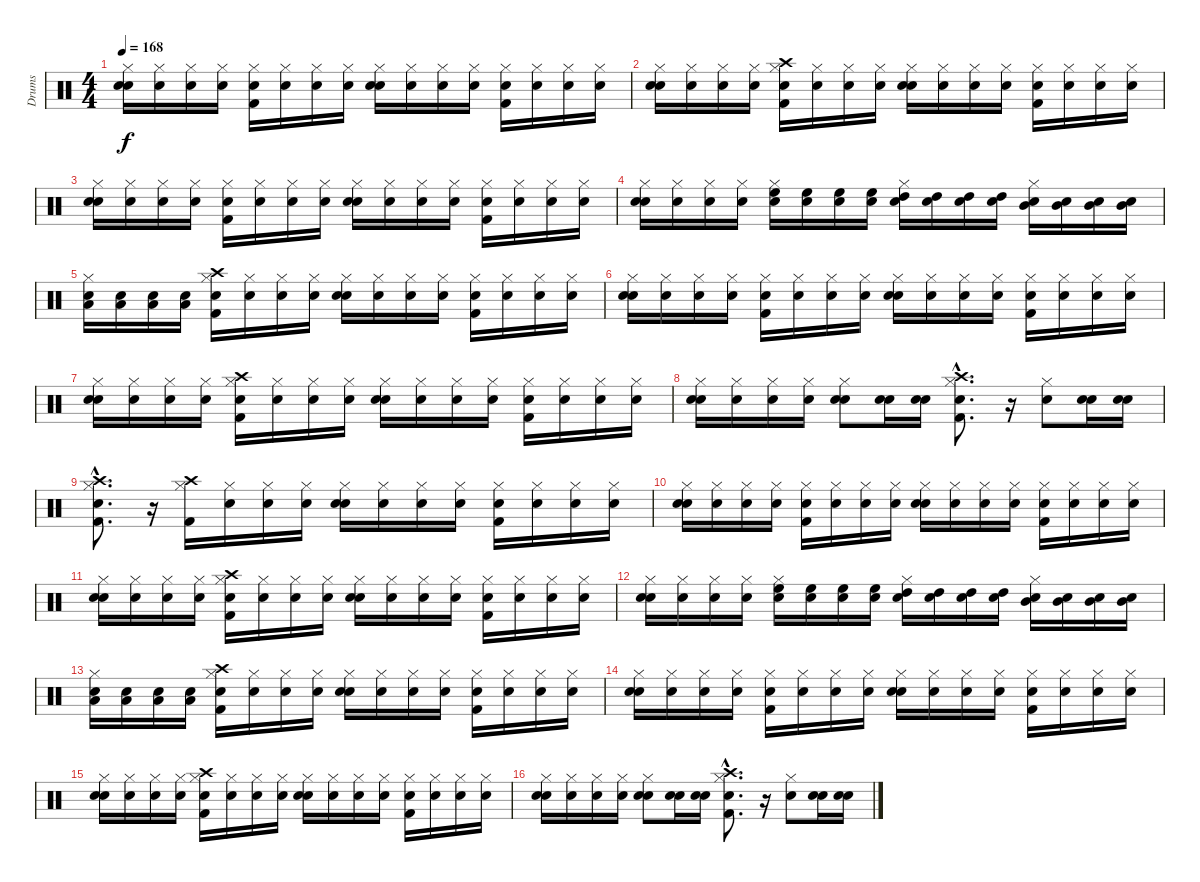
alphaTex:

\track ("Drums" "Drums") {instrument percussion}
\staff {score}
\articulation defaults
\ts (4 4)
\tempo 168
\clef neutral
\ks c
("Snare (hit)" "Snare (hit) 2" "Hi-Hat (closed)").16{dy f} ("Snare (hit)" "Hi-Hat (closed)").16 ("Snare (hit)" "Hi-Hat (closed)").16 ("Snare (hit)" "Hi-Hat (closed)").16 ("Snare (hit)" "Kick (hit) 2" "Hi-Hat (closed)").16 ("Snare (hit)" "Hi-Hat (closed)").16 ("Snare (hit)" "Hi-Hat (closed)").16 ("Snare (hit)" "Hi-Hat (closed)").16 ("Snare (hit)" "Snare (hit) 2" "Hi-Hat (closed)").16 ("Snare (hit)" "Hi-Hat (closed)").16 ("Snare (hit)" "Hi-Hat (closed)").16 ("Snare (hit)" "Hi-Hat (closed)").16 ("Snare (hit)" "Kick (hit) 2" "Hi-Hat (closed)").16 ("Snare (hit)" "Hi-Hat (closed)").16 ("Snare (hit)" "Hi-Hat (closed)").16 ("Snare (hit)" "Hi-Hat (closed)").16 |
("Snare (hit)" "Snare (hit) 2" "Hi-Hat (closed)").16 ("Snare (hit)" "Hi-Hat (closed)").16 ("Snare (hit)" "Hi-Hat (closed)").16 ("Snare (hit)" "Hi-Hat (closed)").16 ("Snare (hit)" "Kick (hit) 2" "Hi-Hat (closed)" "Crash high (hit)").16 ("Snare (hit)" "Hi-Hat (closed)").16 ("Snare (hit)" "Hi-Hat (closed)").16 ("Snare (hit)" "Hi-Hat (closed)").16 ("Snare (hit)" "Snare (hit) 2" "Hi-Hat (closed)").16 ("Snare (hit)" "Hi-Hat (closed)").16 ("Snare (hit)" "Hi-Hat (closed)").16 ("Snare (hit)" "Hi-Hat (closed)").16 ("Snare (hit)" "Kick (hit) 2" "Hi-Hat (closed)").16 ("Snare (hit)" "Hi-Hat (closed)").16 ("Snare (hit)" "Hi-Hat (closed)").16 ("Snare (hit)" "Hi-Hat (closed)").16 |
("Snare (hit)" "Snare (hit) 2" "Hi-Hat (closed)").16 ("Snare (hit)" "Hi-Hat (closed)").16 ("Snare (hit)" "Hi-Hat (closed)").16 ("Snare (hit)" "Hi-Hat (closed)").16 ("Snare (hit)" "Kick (hit) 2" "Hi-Hat (closed)").16 ("Snare (hit)" "Hi-Hat (closed)").16 ("Snare (hit)" "Hi-Hat (closed)").16 ("Snare (hit)" "Hi-Hat (closed)").16 ("Snare (hit)" "Snare (hit) 2" "Hi-Hat (closed)").16 ("Snare (hit)" "Hi-Hat (closed)").16 ("Snare (hit)" "Hi-Hat (closed)").16 ("Snare (hit)" "Hi-Hat (closed)").16 ("Snare (hit)" "Kick (hit) 2" "Hi-Hat (closed)").16 ("Snare (hit)" "Hi-Hat (closed)").16 ("Snare (hit)" "Hi-Hat (closed)").16 ("Snare (hit)" "Hi-Hat (closed)").16 |
("Snare (hit)" "Snare (hit) 2" "Hi-Hat (closed)").16 ("Snare (hit)" "Hi-Hat (closed)").16 ("Snare (hit)" "Hi-Hat (closed)").16 ("Snare (hit)" "Hi-Hat (closed)").16 ("Snare (hit)" "Hi-Hat (closed)" "High Floor Tom (hit)").16 ("Snare (hit)" "High Floor Tom (hit)").16 ("Snare (hit)" "High Floor Tom (hit)").16 ("Snare (hit)" "High Floor Tom (hit)").16 ("Snare (hit)" "Hi-Hat (closed)" "High Tom (hit)").16 ("Snare (hit)" "High Tom (hit)").16 ("Snare (hit)" "High Tom (hit)").16 ("Snare (hit)" "High Tom (hit)").16 ("Snare (hit)" "Hi-Hat (closed)" "Mid Tom (hit)").16 ("Snare (hit)" "Mid Tom (hit)").16 ("Snare (hit)" "Mid Tom (hit)").16 ("Snare (hit)" "Mid Tom (hit)").16 |
("Snare (hit)" "Hi-Hat (closed)" "Low Tom (hit)").16 ("Snare (hit)" "Low Tom (hit)").16 ("Snare (hit)" "Low Tom (hit)").16 ("Snare (hit)" "Low Tom (hit)").16 ("Snare (hit)" "Kick (hit) 2" "Hi-Hat (closed)" "Crash high (hit)").16 ("Snare (hit)" "Hi-Hat (closed)").16 ("Snare (hit)" "Hi-Hat (closed)").16 ("Snare (hit)" "Hi-Hat (closed)").16 ("Snare (hit)" "Snare (hit) 2" "Hi-Hat (closed)").16 ("Snare (hit)" "Hi-Hat (closed)").16 ("Snare (hit)" "Hi-Hat (closed)").16 ("Snare (hit)" "Hi-Hat (closed)").16 ("Snare (hit)" "Kick (hit) 2" "Hi-Hat (closed)").16 ("Snare (hit)" "Hi-Hat (closed)").16 ("Snare (hit)" "Hi-Hat (closed)").16 ("Snare (hit)" "Hi-Hat (closed)").16 |
("Snare (hit)" "Snare (hit) 2" "Hi-Hat (closed)").16 ("Snare (hit)" "Hi-Hat (closed)").16 ("Snare (hit)" "Hi-Hat (closed)").16 ("Snare (hit)" "Hi-Hat (closed)").16 ("Snare (hit)" "Kick (hit) 2" "Hi-Hat (closed)").16 ("Snare (hit)" "Hi-Hat (closed)").16 ("Snare (hit)" "Hi-Hat (closed)").16 ("Snare (hit)" "Hi-Hat (closed)").16 ("Snare (hit)" "Snare (hit) 2" "Hi-Hat (closed)").16 ("Snare (hit)" "Hi-Hat (closed)").16 ("Snare (hit)" "Hi-Hat (closed)").16 ("Snare (hit)" "Hi-Hat (closed)").16 ("Snare (hit)" "Kick (hit) 2" "Hi-Hat (closed)").16 ("Snare (hit)" "Hi-Hat (closed)").16 ("Snare (hit)" "Hi-Hat (closed)").16 ("Snare (hit)" "Hi-Hat (closed)").16 |
("Snare (hit)" "Snare (hit) 2" "Hi-Hat (closed)").16 ("Snare (hit)" "Hi-Hat (closed)").16 ("Snare (hit)" "Hi-Hat (closed)").16 ("Snare (hit)" "Hi-Hat (closed)").16 ("Snare (hit)" "Kick (hit) 2" "Hi-Hat (closed)" "Crash high (hit)").16 ("Snare (hit)" "Hi-Hat (closed)").16 ("Snare (hit)" "Hi-Hat (closed)").16 ("Snare (hit)" "Hi-Hat (closed)").16 ("Snare (hit)" "Snare (hit) 2" "Hi-Hat (closed)").16 ("Snare (hit)" "Hi-Hat (closed)").16 ("Snare (hit)" "Hi-Hat (closed)").16 ("Snare (hit)" "Hi-Hat (closed)").16 ("Snare (hit)" "Kick (hit) 2" "Hi-Hat (closed)").16 ("Snare (hit)" "Hi-Hat (closed)").16 ("Snare (hit)" "Hi-Hat (closed)").16 ("Snare (hit)" "Hi-Hat (closed)").16 |
("Snare (hit)" "Snare (hit) 2" "Hi-Hat (closed)").16 ("Snare (hit)" "Hi-Hat (closed)").16 ("Snare (hit)" "Hi-Hat (closed)").16 ("Snare (hit)" "Hi-Hat (closed)").16 ("Snare (hit)" "Snare (hit) 2" "Hi-Hat (closed)").8 ("Snare (hit)" "Snare (hit) 2").16 ("Snare (hit)" "Snare (hit) 2").16 ("Snare (hit)"{hac} "Kick (hit) 2"{hac} "Hi-Hat (closed)"{hac} "Crash high (hit)"{hac}).8{d} r.16 ("Snare (hit) 2" "Hi-Hat (closed)").8 ("Snare (hit)" "Snare (hit) 2").16 ("Snare (hit)" "Snare (hit) 2").16 |
("Snare (hit)"{hac} "Kick (hit) 2"{hac} "Hi-Hat (closed)"{hac} "Crash high (hit)"{hac}).8{d} r.16 ("Kick (hit) 2" "Hi-Hat (closed)" "Crash high (hit)").16 ("Snare (hit)" "Hi-Hat (closed)").16 ("Snare (hit)" "Hi-Hat (closed)").16 ("Snare (hit)" "Hi-Hat (closed)").16 ("Snare (hit)" "Snare (hit) 2" "Hi-Hat (closed)").16 ("Snare (hit)" "Hi-Hat (closed)").16 ("Snare (hit)" "Hi-Hat (closed)").16 ("Snare (hit)" "Hi-Hat (closed)").16 ("Snare (hit)" "Kick (hit) 2" "Hi-Hat (closed)").16 ("Snare (hit)" "Hi-Hat (closed)").16 ("Snare (hit)" "Hi-Hat (closed)").16 ("Snare (hit)" "Hi-Hat (closed)").16 |
("Snare (hit)" "Snare (hit) 2" "Hi-Hat (closed)").16 ("Snare (hit)" "Hi-Hat (closed)").16 ("Snare (hit)" "Hi-Hat (closed)").16 ("Snare (hit)" "Hi-Hat (closed)").16 ("Snare (hit)" "Kick (hit) 2" "Hi-Hat (closed)").16 ("Snare (hit)" "Hi-Hat (closed)").16 ("Snare (hit)" "Hi-Hat (closed)").16 ("Snare (hit)" "Hi-Hat (closed)").16 ("Snare (hit)" "Snare (hit) 2" "Hi-Hat (closed)").16 ("Snare (hit)" "Hi-Hat (closed)").16 ("Snare (hit)" "Hi-Hat (closed)").16 ("Snare (hit)" "Hi-Hat (closed)").16 ("Snare (hit)" "Kick (hit) 2" "Hi-Hat (closed)").16 ("Snare (hit)" "Hi-Hat (closed)").16 ("Snare (hit)" "Hi-Hat (closed)").16 ("Snare (hit)" "Hi-Hat (closed)").16 |
("Snare (hit)" "Snare (hit) 2" "Hi-Hat (closed)").16 ("Snare (hit)" "Hi-Hat (closed)").16 ("Snare (hit)" "Hi-Hat (closed)").16 ("Snare (hit)" "Hi-Hat (closed)").16 ("Snare (hit)" "Kick (hit) 2" "Hi-Hat (closed)" "Crash high (hit)").16 ("Snare (hit)" "Hi-Hat (closed)").16 ("Snare (hit)" "Hi-Hat (closed)").16 ("Snare (hit)" "Hi-Hat (closed)").16 ("Snare (hit)" "Snare (hit) 2" "Hi-Hat (closed)").16 ("Snare (hit)" "Hi-Hat (closed)").16 ("Snare (hit)" "Hi-Hat (closed)").16 ("Snare (hit)" "Hi-Hat (closed)").16 ("Snare (hit)" "Kick (hit) 2" "Hi-Hat (closed)").16 ("Snare (hit)" "Hi-Hat (closed)").16 ("Snare (hit)" "Hi-Hat (closed)").16 ("Snare (hit)" "Hi-Hat (closed)").16 |
("Snare (hit)" "Snare (hit) 2" "Hi-Hat (closed)").16 ("Snare (hit)" "Hi-Hat (closed)").16 ("Snare (hit)" "Hi-Hat (closed)").16 ("Snare (hit)" "Hi-Hat (closed)").16 ("Snare (hit)" "Hi-Hat (closed)" "High Floor Tom (hit)").16 ("Snare (hit)" "High Floor Tom (hit)").16 ("Snare (hit)" "High Floor Tom (hit)").16 ("Snare (hit)" "High Floor Tom (hit)").16 ("Snare (hit)" "Hi-Hat (closed)" "High Tom (hit)").16 ("Snare (hit)" "High Tom (hit)").16 ("Snare (hit)" "High Tom (hit)").16 ("Snare (hit)" "High Tom (hit)").16 ("Snare (hit)" "Hi-Hat (closed)" "Mid Tom (hit)").16 ("Snare (hit)" "Mid Tom (hit)").16 ("Snare (hit)" "Mid Tom (hit)").16 ("Snare (hit)" "Mid Tom (hit)").16 |
("Snare (hit)" "Hi-Hat (closed)" "Low Tom (hit)").16 ("Snare (hit)" "Low Tom (hit)").16 ("Snare (hit)" "Low Tom (hit)").16 ("Snare (hit)" "Low Tom (hit)").16 ("Snare (hit)" "Kick (hit) 2" "Hi-Hat (closed)" "Crash high (hit)").16 ("Snare (hit)" "Hi-Hat (closed)").16 ("Snare (hit)" "Hi-Hat (closed)").16 ("Snare (hit)" "Hi-Hat (closed)").16 ("Snare (hit)" "Snare (hit) 2" "Hi-Hat (closed)").16 ("Snare (hit)" "Hi-Hat (closed)").16 ("Snare (hit)" "Hi-Hat (closed)").16 ("Snare (hit)" "Hi-Hat (closed)").16 ("Snare (hit)" "Kick (hit) 2" "Hi-Hat (closed)").16 ("Snare (hit)" "Hi-Hat (closed)").16 ("Snare (hit)" "Hi-Hat (closed)").16 ("Snare (hit)" "Hi-Hat (closed)").16 |
("Snare (hit)" "Snare (hit) 2" "Hi-Hat (closed)").16 ("Snare (hit)" "Hi-Hat (closed)").16 ("Snare (hit)" "Hi-Hat (closed)").16 ("Snare (hit)" "Hi-Hat (closed)").16 ("Snare (hit)" "Kick (hit) 2" "Hi-Hat (closed)").16 ("Snare (hit)" "Hi-Hat (closed)").16 ("Snare (hit)" "Hi-Hat (closed)").16 ("Snare (hit)" "Hi-Hat (closed)").16 ("Snare (hit)" "Snare (hit) 2" "Hi-Hat (closed)").16 ("Snare (hit)" "Hi-Hat (closed)").16 ("Snare (hit)" "Hi-Hat (closed)").16 ("Snare (hit)" "Hi-Hat (closed)").16 ("Snare (hit)" "Kick (hit) 2" "Hi-Hat (closed)").16 ("Snare (hit)" "Hi-Hat (closed)").16 ("Snare (hit)" "Hi-Hat (closed)").16 ("Snare (hit)" "Hi-Hat (closed)").16 |
("Snare (hit)" "Snare (hit) 2" "Hi-Hat (closed)").16 ("Snare (hit)" "Hi-Hat (closed)").16 ("Snare (hit)" "Hi-Hat (closed)").16 ("Snare (hit)" "Hi-Hat (closed)").16 ("Snare (hit)" "Kick (hit) 2" "Hi-Hat (closed)" "Crash high (hit)").16 ("Snare (hit)" "Hi-Hat (closed)").16 ("Snare (hit)" "Hi-Hat (closed)").16 ("Snare (hit)" "Hi-Hat (closed)").16 ("Snare (hit)" "Snare (hit) 2" "Hi-Hat (closed)").16 ("Snare (hit)" "Hi-Hat (closed)").16 ("Snare (hit)" "Hi-Hat (closed)").16 ("Snare (hit)" "Hi-Hat (closed)").16 ("Snare (hit)" "Kick (hit) 2" "Hi-Hat (closed)").16 ("Snare (hit)" "Hi-Hat (closed)").16 ("Snare (hit)" "Hi-Hat (closed)").16 ("Snare (hit)" "Hi-Hat (closed)").16 |
("Snare (hit)" "Snare (hit) 2" "Hi-Hat (closed)").16 ("Snare (hit)" "Hi-Hat (closed)").16 ("Snare (hit)" "Hi-Hat (closed)").16 ("Snare (hit)" "Hi-Hat (closed)").16 ("Snare (hit)" "Snare (hit) 2" "Hi-Hat (closed)").8 ("Snare (hit)" "Snare (hit) 2").16 ("Snare (hit)" "Snare (hit) 2").16 ("Snare (hit)"{hac} "Kick (hit) 2"{hac} "Hi-Hat (closed)"{hac} "Crash high (hit)"{hac}).8{d} r.16 ("Snare (hit) 2" "Hi-Hat (closed)").8 ("Snare (hit)" "Snare (hit) 2").16 ("Snare (hit)" "Snare (hit) 2").16
